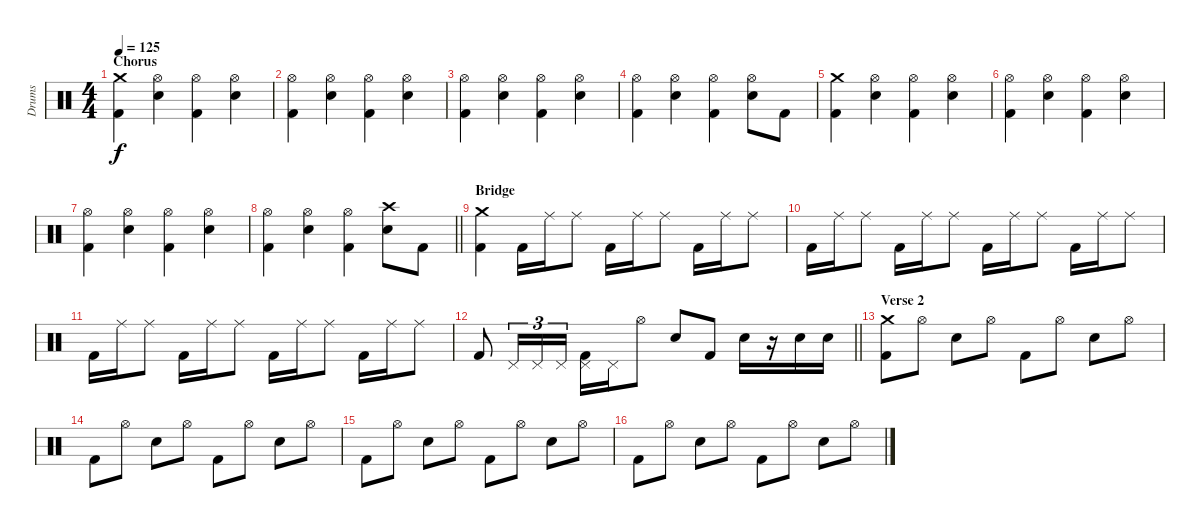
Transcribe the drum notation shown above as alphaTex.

\track ("Drums" "Drums") {instrument percussion}
\staff {score}
\articulation defaults
\ts (4 4)
\section ("" "Chorus")
\tempo 125
\clef neutral
\ks c
("Crash medium (hit)" "Kick (hit) 2").4{dy f} ("Hi-Hat (open)" "Electric Snare (hit)").4 ("Hi-Hat (open)" "Kick (hit) 2").4 ("Hi-Hat (open)" "Electric Snare (hit)").4 |
("Hi-Hat (open)" "Kick (hit) 2").4 ("Hi-Hat (open)" "Electric Snare (hit)").4 ("Hi-Hat (open)" "Kick (hit) 2").4 ("Hi-Hat (open)" "Electric Snare (hit)").4 |
("Hi-Hat (open)" "Kick (hit) 2").4 ("Hi-Hat (open)" "Electric Snare (hit)").4 ("Hi-Hat (open)" "Kick (hit) 2").4 ("Hi-Hat (open)" "Electric Snare (hit)").4 |
("Hi-Hat (open)" "Kick (hit) 2").4 ("Hi-Hat (open)" "Electric Snare (hit)").4 ("Hi-Hat (open)" "Kick (hit) 2").4 ("Hi-Hat (open)" "Electric Snare (hit)").8 "Kick (hit) 2".8 |
("Crash medium (hit)" "Kick (hit) 2").4 ("Hi-Hat (open)" "Electric Snare (hit)").4 ("Hi-Hat (open)" "Kick (hit) 2").4 ("Hi-Hat (open)" "Electric Snare (hit)").4 |
("Hi-Hat (open)" "Kick (hit) 2").4 ("Hi-Hat (open)" "Electric Snare (hit)").4 ("Hi-Hat (open)" "Kick (hit) 2").4 ("Hi-Hat (open)" "Electric Snare (hit)").4 |
("Hi-Hat (open)" "Kick (hit) 2").4 ("Hi-Hat (open)" "Electric Snare (hit)").4 ("Hi-Hat (open)" "Kick (hit) 2").4 ("Hi-Hat (open)" "Electric Snare (hit)").4 |
\barLineRight lightlight
("Hi-Hat (open)" "Kick (hit) 2").4 ("Hi-Hat (open)" "Electric Snare (hit)").4 ("Hi-Hat (open)" "Kick (hit) 2").4 ("Crash high (hit)" "Electric Snare (hit)").8 "Kick (hit) 2".8 |
\section ("" "Bridge")
("Crash medium (hit)" "Kick (hit) 2").4 "Kick (hit) 2".16 "Ride (middle)".16 "Ride (middle)".8 "Kick (hit) 2".16 "Ride (middle)".16 "Ride (middle)".8 "Kick (hit) 2".16 "Ride (middle)".16 "Ride (middle)".8 |
"Kick (hit) 2".16 "Ride (middle)".16 "Ride (middle)".8 "Kick (hit) 2".16 "Ride (middle)".16 "Ride (middle)".8 "Kick (hit) 2".16 "Ride (middle)".16 "Ride (middle)".8 "Kick (hit) 2".16 "Ride (middle)".16 "Ride (middle)".8 |
"Kick (hit) 2".16 "Ride (middle)".16 "Ride (middle)".8 "Kick (hit) 2".16 "Ride (middle)".16 "Ride (middle)".8 "Kick (hit) 2".16 "Ride (middle)".16 "Ride (middle)".8 "Kick (hit) 2".16 "Ride (middle)".16 "Ride (middle)".8 |
\barLineRight lightlight "Kick (hit) 2".8 "Pedal Hi-Hat (hit)".16{tu (3 2)} "Pedal Hi-Hat (hit)".16{tu (3 2)} "Pedal Hi-Hat (hit)".16{tu (3 2)}
("Pedal Hi-Hat (hit)" "Kick (hit) 2").16 "Pedal Hi-Hat (hit)".16 "Hi-Hat (open)".8 "Electric Snare (hit)".8 "Kick (hit) 2".8 "Electric Snare (hit)".16 r.16 "Electric Snare (hit)".16 "Electric Snare (hit)".16 |
\section ("" "Verse 2")
("Crash medium (hit)" "Kick (hit) 2").8 "Hi-Hat (open)".8 "Electric Snare (hit)".8 "Hi-Hat (open)".8 "Kick (hit) 2".8 "Hi-Hat (open)".8 "Electric Snare (hit)".8 "Hi-Hat (open)".8 |
"Kick (hit) 2".8 "Hi-Hat (open)".8 "Electric Snare (hit)".8 "Hi-Hat (open)".8 "Kick (hit) 2".8 "Hi-Hat (open)".8 "Electric Snare (hit)".8 "Hi-Hat (open)".8 |
"Kick (hit) 2".8 "Hi-Hat (open)".8 "Electric Snare (hit)".8 "Hi-Hat (open)".8 "Kick (hit) 2".8 "Hi-Hat (open)".8 "Electric Snare (hit)".8 "Hi-Hat (open)".8 |
"Kick (hit) 2".8 "Hi-Hat (open)".8 "Electric Snare (hit)".8 "Hi-Hat (open)".8 "Kick (hit) 2".8 "Hi-Hat (open)".8 "Electric Snare (hit)".8 "Hi-Hat (open)".8
